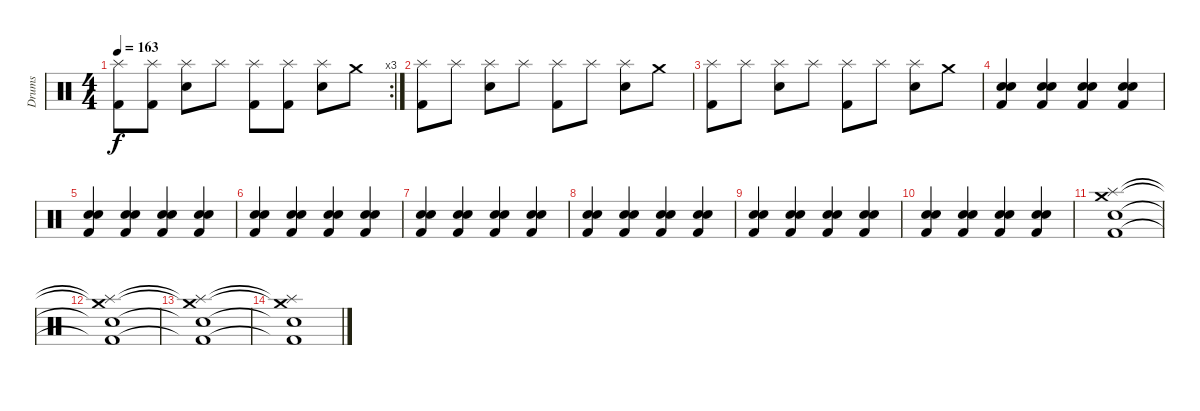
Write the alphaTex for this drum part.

\track ("Drums" "Drums") {instrument percussion}
\staff {score}
\articulation defaults
\rc 3
\ts (4 4)
\tempo 163
\clef neutral
\ks c
("Splash (hit)" "Kick (hit) 2").8{dy f} ("Splash (hit)" "Kick (hit) 2").8 ("Splash (hit)" "Snare (hit) 2").8 "Splash (hit)".8 ("Splash (hit)" "Kick (hit) 2").8 ("Splash (hit)" "Kick (hit) 2").8 ("Splash (hit)" "Snare (hit) 2").8 "Crash medium (hit)".8 |
("Splash (hit)" "Kick (hit) 2").8 "Splash (hit)".8 ("Splash (hit)" "Snare (hit) 2").8 "Splash (hit)".8 ("Splash (hit)" "Kick (hit) 2").8 "Splash (hit)".8 ("Splash (hit)" "Snare (hit) 2").8 "Crash medium (hit)".8 |
("Splash (hit)" "Kick (hit) 2").8 "Splash (hit)".8 ("Splash (hit)" "Snare (hit) 2").8 "Splash (hit)".8 ("Splash (hit)" "Kick (hit) 2").8 "Splash (hit)".8 ("Splash (hit)" "Snare (hit) 2").8 "Crash medium (hit)".8 |
("Snare (hit) 2" "Snare (hit) 2" "Kick (hit) 2").4 ("Snare (hit) 2" "Snare (hit) 2" "Kick (hit) 2").4 ("Snare (hit) 2" "Snare (hit) 2" "Kick (hit) 2").4 ("Snare (hit) 2" "Snare (hit) 2" "Kick (hit) 2").4 |
("Snare (hit) 2" "Snare (hit) 2" "Kick (hit) 2").4 ("Snare (hit) 2" "Snare (hit) 2" "Kick (hit) 2").4 ("Snare (hit) 2" "Snare (hit) 2" "Kick (hit) 2").4 ("Snare (hit) 2" "Snare (hit) 2" "Kick (hit) 2").4 |
("Snare (hit) 2" "Snare (hit) 2" "Kick (hit) 2").4 ("Snare (hit) 2" "Snare (hit) 2" "Kick (hit) 2").4 ("Snare (hit) 2" "Snare (hit) 2" "Kick (hit) 2").4 ("Snare (hit) 2" "Snare (hit) 2" "Kick (hit) 2").4 |
("Snare (hit) 2" "Snare (hit) 2" "Kick (hit) 2").4 ("Snare (hit) 2" "Snare (hit) 2" "Kick (hit) 2").4 ("Snare (hit) 2" "Snare (hit) 2" "Kick (hit) 2").4 ("Snare (hit) 2" "Snare (hit) 2" "Kick (hit) 2").4 |
("Snare (hit) 2" "Snare (hit) 2" "Kick (hit) 2").4 ("Snare (hit) 2" "Snare (hit) 2" "Kick (hit) 2").4 ("Snare (hit) 2" "Snare (hit) 2" "Kick (hit) 2").4 ("Snare (hit) 2" "Snare (hit) 2" "Kick (hit) 2").4 |
("Snare (hit) 2" "Snare (hit) 2" "Kick (hit) 2").4 ("Snare (hit) 2" "Snare (hit) 2" "Kick (hit) 2").4 ("Snare (hit) 2" "Snare (hit) 2" "Kick (hit) 2").4 ("Snare (hit) 2" "Snare (hit) 2" "Kick (hit) 2").4 |
("Snare (hit) 2" "Snare (hit) 2" "Kick (hit) 2").4 ("Snare (hit) 2" "Snare (hit) 2" "Kick (hit) 2").4 ("Snare (hit) 2" "Snare (hit) 2" "Kick (hit) 2").4 ("Snare (hit) 2" "Snare (hit) 2" "Kick (hit) 2").4 |
("Crash medium (hit)" "Splash (hit)" "Snare (hit) 2" "Kick (hit) 2").1 |
("Crash medium (hit)"{t} "Splash (hit)"{t} "Snare (hit) 2"{t} "Kick (hit) 2"{t}).1 |
("Crash medium (hit)"{t} "Splash (hit)"{t} "Snare (hit) 2"{t} "Kick (hit) 2"{t}).1 |
("Crash medium (hit)"{t} "Splash (hit)"{t} "Snare (hit) 2"{t} "Kick (hit) 2"{t}).1
